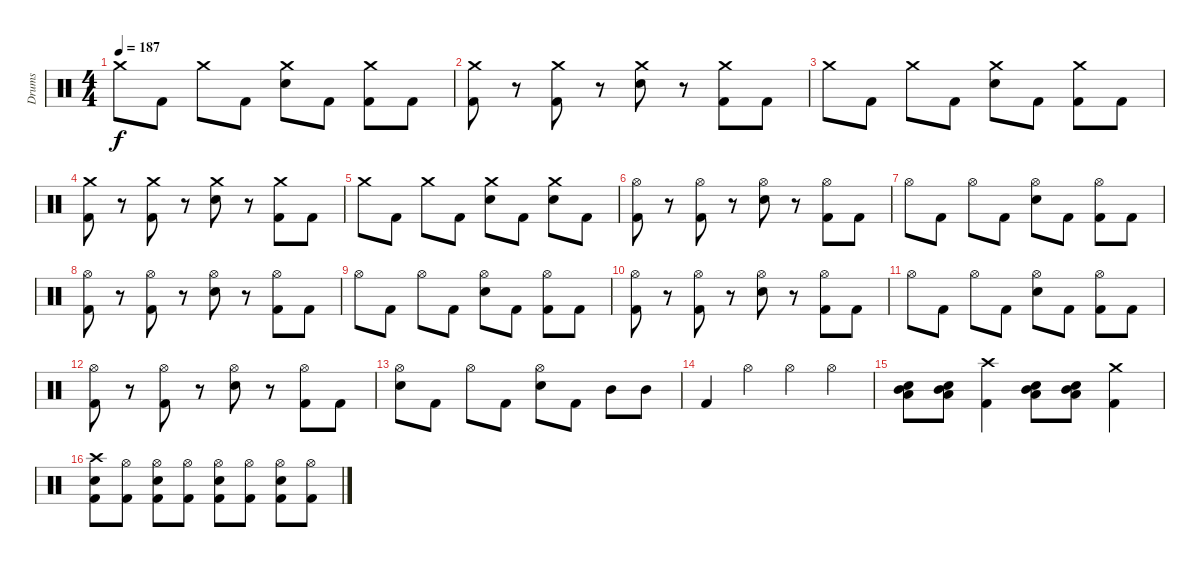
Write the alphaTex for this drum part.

\track ("Drums" "Drums") {instrument percussion}
\staff {score}
\articulation defaults
\ts (4 4)
\tempo 187
\clef neutral
\ks c "Crash medium (hit)".8{dy f} "Kick (hit) 2".8 "Crash medium (hit)".8 "Kick (hit) 2".8
("Crash medium (hit)" "Electric Snare (hit)").8 "Kick (hit) 2".8 ("Crash medium (hit)" "Kick (hit) 2").8 "Kick (hit) 2".8 |
("Crash medium (hit)" "Kick (hit) 2").8 r.8 ("Crash medium (hit)" "Kick (hit) 2").8 r.8 ("Crash medium (hit)" "Electric Snare (hit)").8 r.8 ("Crash medium (hit)" "Kick (hit) 2").8 "Kick (hit) 2".8 |
"Crash medium (hit)".8 "Kick (hit) 2".8 "Crash medium (hit)".8 "Kick (hit) 2".8 ("Crash medium (hit)" "Electric Snare (hit)").8 "Kick (hit) 2".8 ("Crash medium (hit)" "Kick (hit) 2").8 "Kick (hit) 2".8 |
("Crash medium (hit)" "Kick (hit) 2").8 r.8 ("Crash medium (hit)" "Kick (hit) 2").8 r.8 ("Crash medium (hit)" "Electric Snare (hit)").8 r.8 ("Crash medium (hit)" "Kick (hit) 2").8 "Kick (hit) 2".8 |
"Crash medium (hit)".8 "Kick (hit) 2".8 "Crash medium (hit)".8 "Kick (hit) 2".8 ("Crash medium (hit)" "Electric Snare (hit)").8 "Kick (hit) 2".8 ("Crash medium (hit)" "Electric Snare (hit)").8 "Kick (hit) 2".8 |
("Hi-Hat (open)" "Kick (hit) 2").8 r.8 ("Hi-Hat (open)" "Kick (hit) 2").8 r.8 ("Hi-Hat (open)" "Electric Snare (hit)").8 r.8 ("Hi-Hat (open)" "Kick (hit) 2").8 "Kick (hit) 2".8 |
"Hi-Hat (open)".8 "Kick (hit) 2".8 "Hi-Hat (open)".8 "Kick (hit) 2".8 ("Hi-Hat (open)" "Electric Snare (hit)").8 "Kick (hit) 2".8 ("Hi-Hat (open)" "Kick (hit) 2").8 "Kick (hit) 2".8 |
("Hi-Hat (open)" "Kick (hit) 2").8 r.8 ("Hi-Hat (open)" "Kick (hit) 2").8 r.8 ("Hi-Hat (open)" "Electric Snare (hit)").8 r.8 ("Hi-Hat (open)" "Kick (hit) 2").8 "Kick (hit) 2".8 |
"Hi-Hat (open)".8 "Kick (hit) 2".8 "Hi-Hat (open)".8 "Kick (hit) 2".8 ("Hi-Hat (open)" "Electric Snare (hit)").8 "Kick (hit) 2".8 ("Hi-Hat (open)" "Kick (hit) 2").8 "Kick (hit) 2".8 |
("Hi-Hat (open)" "Kick (hit) 2").8 r.8 ("Hi-Hat (open)" "Kick (hit) 2").8 r.8 ("Hi-Hat (open)" "Electric Snare (hit)").8 r.8 ("Hi-Hat (open)" "Kick (hit) 2").8 "Kick (hit) 2".8 |
"Hi-Hat (open)".8 "Kick (hit) 2".8 "Hi-Hat (open)".8 "Kick (hit) 2".8 ("Hi-Hat (open)" "Electric Snare (hit)").8 "Kick (hit) 2".8 ("Hi-Hat (open)" "Kick (hit) 2").8 "Kick (hit) 2".8 |
("Hi-Hat (open)" "Kick (hit) 2").8 r.8 ("Hi-Hat (open)" "Kick (hit) 2").8 r.8 ("Hi-Hat (open)" "Electric Snare (hit)").8 r.8 ("Hi-Hat (open)" "Kick (hit) 2").8 "Kick (hit) 2".8 |
("Hi-Hat (open)" "Electric Snare (hit)").8 "Kick (hit) 2".8 "Hi-Hat (open)".8 "Kick (hit) 2".8 ("Hi-Hat (open)" "Electric Snare (hit)").8 "Kick (hit) 2".8 "Mid Tom (hit)".8 "Mid Tom (hit)".8 |
"Kick (hit) 2".4 "Hi-Hat (open)".4 "Hi-Hat (open)".4 "Hi-Hat (open)".4 |
("Low Tom (hit)" "Mid Tom (hit)" "Electric Snare (hit)").8 ("Low Tom (hit)" "Mid Tom (hit)" "Electric Snare (hit)").8 ("Crash high (hit)" "Kick (hit) 2").4 ("Low Tom (hit)" "Mid Tom (hit)" "Electric Snare (hit)").8 ("Low Tom (hit)" "Mid Tom (hit)" "Electric Snare (hit)").8 ("Crash medium (hit)" "Kick (hit) 2").4 |
("Kick (hit) 2" "Electric Snare (hit)" "Crash high (hit)").8 ("Kick (hit) 2" "Hi-Hat (open)").8 ("Kick (hit) 2" "Electric Snare (hit)" "Hi-Hat (open)").8 ("Kick (hit) 2" "Hi-Hat (open)").8 ("Kick (hit) 2" "Electric Snare (hit)" "Hi-Hat (open)").8 ("Kick (hit) 2" "Hi-Hat (open)").8 ("Kick (hit) 2" "Electric Snare (hit)" "Hi-Hat (open)").8 ("Kick (hit) 2" "Hi-Hat (open)").8
